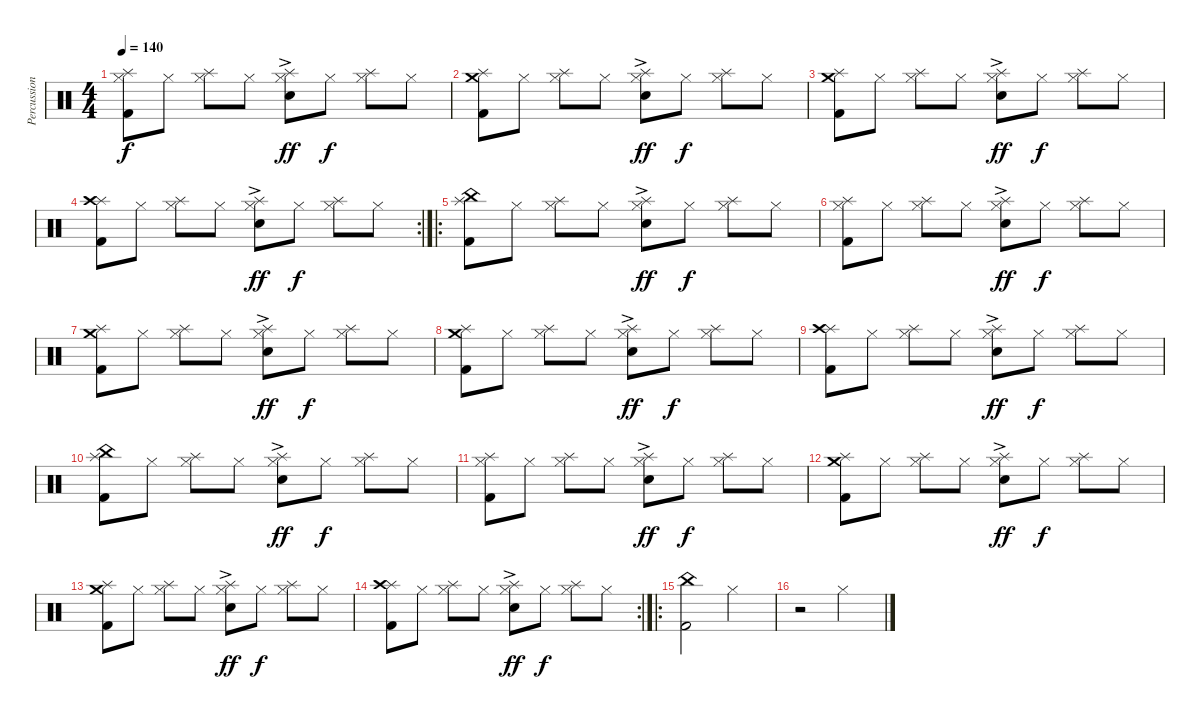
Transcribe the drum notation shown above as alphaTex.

\track ("Percussion" "Percussion") {instrument percussion}
\staff {score}
\articulation defaults
\ts (4 4)
\tempo 140
\clef neutral
\ks c
("Splash (hit)" "Hi-Hat (closed)" "Kick (hit) 2").8{dy f} "Hi-Hat (closed)".8 ("Splash (hit)" "Hi-Hat (closed)").8 "Hi-Hat (closed)".8 ("Splash (hit)" "Hi-Hat (closed)" "Snare (hit) 2"{ac}).8{dy ff} "Hi-Hat (closed)".8{dy f} ("Splash (hit)" "Hi-Hat (closed)").8 "Hi-Hat (closed)".8 |
("Splash (hit)" "Crash medium (hit)" "Kick (hit) 2").8 "Hi-Hat (closed)".8 ("Splash (hit)" "Hi-Hat (closed)").8 "Hi-Hat (closed)".8 ("Splash (hit)" "Hi-Hat (closed)" "Snare (hit) 2"{ac}).8{dy ff} "Hi-Hat (closed)".8{dy f} ("Splash (hit)" "Hi-Hat (closed)").8 "Hi-Hat (closed)".8 |
("Splash (hit)" "Crash medium (hit)" "Kick (hit) 2").8 "Hi-Hat (closed)".8 ("Splash (hit)" "Hi-Hat (closed)").8 "Hi-Hat (closed)".8 ("Splash (hit)" "Hi-Hat (closed)" "Snare (hit) 2"{ac}).8{dy ff} "Hi-Hat (closed)".8{dy f} ("Splash (hit)" "Hi-Hat (closed)").8 "Hi-Hat (closed)".8 |
\rc 2
("Splash (hit)" "Crash high (hit)" "Kick (hit) 2").8 "Hi-Hat (closed)".8 ("Splash (hit)" "Hi-Hat (closed)").8 "Hi-Hat (closed)".8 ("Splash (hit)" "Hi-Hat (closed)" "Snare (hit) 2"{ac}).8{dy ff} "Hi-Hat (closed)".8{dy f} ("Splash (hit)" "Hi-Hat (closed)").8 "Hi-Hat (closed)".8 |
\ro
("Splash (hit)" "China (hit)" "Kick (hit) 2").8 "Hi-Hat (closed)".8 ("Splash (hit)" "Hi-Hat (closed)").8 "Hi-Hat (closed)".8 ("Splash (hit)" "Hi-Hat (closed)" "Snare (hit) 2"{ac}).8{dy ff} "Hi-Hat (closed)".8{dy f} ("Splash (hit)" "Hi-Hat (closed)").8 "Hi-Hat (closed)".8 |
("Splash (hit)" "Hi-Hat (closed)" "Kick (hit) 2").8 "Hi-Hat (closed)".8 ("Splash (hit)" "Hi-Hat (closed)").8 "Hi-Hat (closed)".8 ("Splash (hit)" "Hi-Hat (closed)" "Snare (hit) 2"{ac}).8{dy ff} "Hi-Hat (closed)".8{dy f} ("Splash (hit)" "Hi-Hat (closed)").8 "Hi-Hat (closed)".8 |
("Splash (hit)" "Crash medium (hit)" "Kick (hit) 2").8 "Hi-Hat (closed)".8 ("Splash (hit)" "Hi-Hat (closed)").8 "Hi-Hat (closed)".8 ("Splash (hit)" "Hi-Hat (closed)" "Snare (hit) 2"{ac}).8{dy ff} "Hi-Hat (closed)".8{dy f} ("Splash (hit)" "Hi-Hat (closed)").8 "Hi-Hat (closed)".8 |
("Splash (hit)" "Crash medium (hit)" "Kick (hit) 2").8 "Hi-Hat (closed)".8 ("Splash (hit)" "Hi-Hat (closed)").8 "Hi-Hat (closed)".8 ("Splash (hit)" "Hi-Hat (closed)" "Snare (hit) 2"{ac}).8{dy ff} "Hi-Hat (closed)".8{dy f} ("Splash (hit)" "Hi-Hat (closed)").8 "Hi-Hat (closed)".8 |
("Splash (hit)" "Crash high (hit)" "Kick (hit) 2").8 "Hi-Hat (closed)".8 ("Splash (hit)" "Hi-Hat (closed)").8 "Hi-Hat (closed)".8 ("Splash (hit)" "Hi-Hat (closed)" "Snare (hit) 2"{ac}).8{dy ff} "Hi-Hat (closed)".8{dy f} ("Splash (hit)" "Hi-Hat (closed)").8 "Hi-Hat (closed)".8 |
("Splash (hit)" "China (hit)" "Kick (hit) 2").8 "Hi-Hat (closed)".8 ("Splash (hit)" "Hi-Hat (closed)").8 "Hi-Hat (closed)".8 ("Splash (hit)" "Hi-Hat (closed)" "Snare (hit) 2"{ac}).8{dy ff} "Hi-Hat (closed)".8{dy f} ("Splash (hit)" "Hi-Hat (closed)").8 "Hi-Hat (closed)".8 |
("Splash (hit)" "Hi-Hat (closed)" "Kick (hit) 2").8 "Hi-Hat (closed)".8 ("Splash (hit)" "Hi-Hat (closed)").8 "Hi-Hat (closed)".8 ("Splash (hit)" "Hi-Hat (closed)" "Snare (hit) 2"{ac}).8{dy ff} "Hi-Hat (closed)".8{dy f} ("Splash (hit)" "Hi-Hat (closed)").8 "Hi-Hat (closed)".8 |
("Splash (hit)" "Crash medium (hit)" "Kick (hit) 2").8 "Hi-Hat (closed)".8 ("Splash (hit)" "Hi-Hat (closed)").8 "Hi-Hat (closed)".8 ("Splash (hit)" "Hi-Hat (closed)" "Snare (hit) 2"{ac}).8{dy ff} "Hi-Hat (closed)".8{dy f} ("Splash (hit)" "Hi-Hat (closed)").8 "Hi-Hat (closed)".8 |
("Splash (hit)" "Crash medium (hit)" "Kick (hit) 2").8 "Hi-Hat (closed)".8 ("Splash (hit)" "Hi-Hat (closed)").8 "Hi-Hat (closed)".8 ("Splash (hit)" "Hi-Hat (closed)" "Snare (hit) 2"{ac}).8{dy ff} "Hi-Hat (closed)".8{dy f} ("Splash (hit)" "Hi-Hat (closed)").8 "Hi-Hat (closed)".8 |
\rc 2
("Splash (hit)" "Crash high (hit)" "Kick (hit) 2").8 "Hi-Hat (closed)".8 ("Splash (hit)" "Hi-Hat (closed)").8 "Hi-Hat (closed)".8 ("Splash (hit)" "Hi-Hat (closed)" "Snare (hit) 2"{ac}).8{dy ff} "Hi-Hat (closed)".8{dy f} ("Splash (hit)" "Hi-Hat (closed)").8 "Hi-Hat (closed)".8 |
\ro
("China (hit)" "Kick (hit) 2").2 "Hi-Hat (closed)".2 |
r.2 "Hi-Hat (closed)".2
